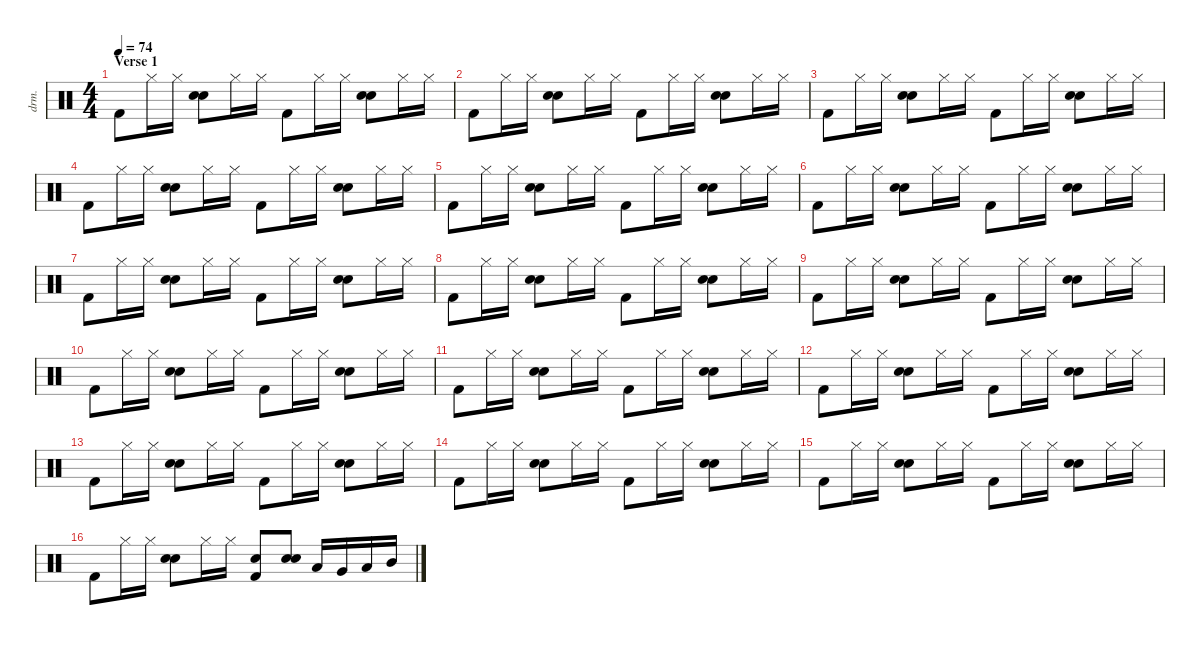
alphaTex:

\defaultSystemsLayout 4
\hideDynamics
\bracketExtendMode nobrackets
\otherSystemsTrackNameOrientation horizontal
\track ("Percussion" "drm.") {instrument percussion}
\staff {score}
\articulation defaults
\ts (4 4)
\section ("" "Verse 1")
\tempo 74
\clef neutral
\ks c "Kick (hit) 2".8{dy f} "Hi-Hat (closed)".16 "Hi-Hat (closed)".16
("Snare (hit) 2" "Snare (hit) 2").8 "Hi-Hat (closed)".16 "Hi-Hat (closed)".16 "Kick (hit) 2".8 "Hi-Hat (closed)".16 "Hi-Hat (closed)".16 ("Snare (hit) 2" "Snare (hit) 2").8 "Hi-Hat (closed)".16 "Hi-Hat (closed)".16 |
"Kick (hit) 2".8 "Hi-Hat (closed)".16 "Hi-Hat (closed)".16 ("Snare (hit) 2" "Snare (hit) 2").8 "Hi-Hat (closed)".16 "Hi-Hat (closed)".16 "Kick (hit) 2".8 "Hi-Hat (closed)".16 "Hi-Hat (closed)".16 ("Snare (hit) 2" "Snare (hit) 2").8 "Hi-Hat (closed)".16 "Hi-Hat (closed)".16 |
"Kick (hit) 2".8 "Hi-Hat (closed)".16 "Hi-Hat (closed)".16 ("Snare (hit) 2" "Snare (hit) 2").8 "Hi-Hat (closed)".16 "Hi-Hat (closed)".16 "Kick (hit) 2".8 "Hi-Hat (closed)".16 "Hi-Hat (closed)".16 ("Snare (hit) 2" "Snare (hit) 2").8 "Hi-Hat (closed)".16 "Hi-Hat (closed)".16 |
"Kick (hit) 2".8 "Hi-Hat (closed)".16 "Hi-Hat (closed)".16 ("Snare (hit) 2" "Snare (hit) 2").8 "Hi-Hat (closed)".16 "Hi-Hat (closed)".16 "Kick (hit) 2".8 "Hi-Hat (closed)".16 "Hi-Hat (closed)".16 ("Snare (hit) 2" "Snare (hit) 2").8 "Hi-Hat (closed)".16 "Hi-Hat (closed)".16 |
"Kick (hit) 2".8 "Hi-Hat (closed)".16 "Hi-Hat (closed)".16 ("Snare (hit) 2" "Snare (hit) 2").8 "Hi-Hat (closed)".16 "Hi-Hat (closed)".16 "Kick (hit) 2".8 "Hi-Hat (closed)".16 "Hi-Hat (closed)".16 ("Snare (hit) 2" "Snare (hit) 2").8 "Hi-Hat (closed)".16 "Hi-Hat (closed)".16 |
"Kick (hit) 2".8 "Hi-Hat (closed)".16 "Hi-Hat (closed)".16 ("Snare (hit) 2" "Snare (hit) 2").8 "Hi-Hat (closed)".16 "Hi-Hat (closed)".16 "Kick (hit) 2".8 "Hi-Hat (closed)".16 "Hi-Hat (closed)".16 ("Snare (hit) 2" "Snare (hit) 2").8 "Hi-Hat (closed)".16 "Hi-Hat (closed)".16 |
"Kick (hit) 2".8 "Hi-Hat (closed)".16 "Hi-Hat (closed)".16 ("Snare (hit) 2" "Snare (hit) 2").8 "Hi-Hat (closed)".16 "Hi-Hat (closed)".16 "Kick (hit) 2".8 "Hi-Hat (closed)".16 "Hi-Hat (closed)".16 ("Snare (hit) 2" "Snare (hit) 2").8 "Hi-Hat (closed)".16 "Hi-Hat (closed)".16 |
"Kick (hit) 2".8 "Hi-Hat (closed)".16 "Hi-Hat (closed)".16 ("Snare (hit) 2" "Snare (hit) 2").8 "Hi-Hat (closed)".16 "Hi-Hat (closed)".16 "Kick (hit) 2".8 "Hi-Hat (closed)".16 "Hi-Hat (closed)".16 ("Snare (hit) 2" "Snare (hit) 2").8 "Hi-Hat (closed)".16 "Hi-Hat (closed)".16 |
"Kick (hit) 2".8 "Hi-Hat (closed)".16 "Hi-Hat (closed)".16 ("Snare (hit) 2" "Snare (hit) 2").8 "Hi-Hat (closed)".16 "Hi-Hat (closed)".16 "Kick (hit) 2".8 "Hi-Hat (closed)".16 "Hi-Hat (closed)".16 ("Snare (hit) 2" "Snare (hit) 2").8 "Hi-Hat (closed)".16 "Hi-Hat (closed)".16 |
"Kick (hit) 2".8 "Hi-Hat (closed)".16 "Hi-Hat (closed)".16 ("Snare (hit) 2" "Snare (hit) 2").8 "Hi-Hat (closed)".16 "Hi-Hat (closed)".16 "Kick (hit) 2".8 "Hi-Hat (closed)".16 "Hi-Hat (closed)".16 ("Snare (hit) 2" "Snare (hit) 2").8 "Hi-Hat (closed)".16 "Hi-Hat (closed)".16 |
"Kick (hit) 2".8 "Hi-Hat (closed)".16 "Hi-Hat (closed)".16 ("Snare (hit) 2" "Snare (hit) 2").8 "Hi-Hat (closed)".16 "Hi-Hat (closed)".16 "Kick (hit) 2".8 "Hi-Hat (closed)".16 "Hi-Hat (closed)".16 ("Snare (hit) 2" "Snare (hit) 2").8 "Hi-Hat (closed)".16 "Hi-Hat (closed)".16 |
"Kick (hit) 2".8 "Hi-Hat (closed)".16 "Hi-Hat (closed)".16 ("Snare (hit) 2" "Snare (hit) 2").8 "Hi-Hat (closed)".16 "Hi-Hat (closed)".16 "Kick (hit) 2".8 "Hi-Hat (closed)".16 "Hi-Hat (closed)".16 ("Snare (hit) 2" "Snare (hit) 2").8 "Hi-Hat (closed)".16 "Hi-Hat (closed)".16 |
"Kick (hit) 2".8 "Hi-Hat (closed)".16 "Hi-Hat (closed)".16 ("Snare (hit) 2" "Snare (hit) 2").8 "Hi-Hat (closed)".16 "Hi-Hat (closed)".16 "Kick (hit) 2".8 "Hi-Hat (closed)".16 "Hi-Hat (closed)".16 ("Snare (hit) 2" "Snare (hit) 2").8 "Hi-Hat (closed)".16 "Hi-Hat (closed)".16 |
"Kick (hit) 2".8 "Hi-Hat (closed)".16 "Hi-Hat (closed)".16 ("Snare (hit) 2" "Snare (hit) 2").8 "Hi-Hat (closed)".16 "Hi-Hat (closed)".16 "Kick (hit) 2".8 "Hi-Hat (closed)".16 "Hi-Hat (closed)".16 ("Snare (hit) 2" "Snare (hit) 2").8 "Hi-Hat (closed)".16 "Hi-Hat (closed)".16 |
"Kick (hit) 2".8 "Hi-Hat (closed)".16 "Hi-Hat (closed)".16 ("Snare (hit) 2" "Snare (hit) 2").8 "Hi-Hat (closed)".16 "Hi-Hat (closed)".16 "Kick (hit) 2".8 "Hi-Hat (closed)".16 "Hi-Hat (closed)".16 ("Snare (hit) 2" "Snare (hit) 2").8 "Hi-Hat (closed)".16 "Hi-Hat (closed)".16 |
"Kick (hit) 2".8 "Hi-Hat (closed)".16 "Hi-Hat (closed)".16 ("Snare (hit) 2" "Snare (hit) 2").8 "Hi-Hat (closed)".16 "Hi-Hat (closed)".16 ("Snare (hit) 2" "Kick (hit) 2").8 ("Snare (hit) 2" "Snare (hit) 2").8 "Low Floor Tom (hit)".16 "Very Low Tom (hit)".16 "Low Tom (hit)".16 "Mid Tom (hit)".16
